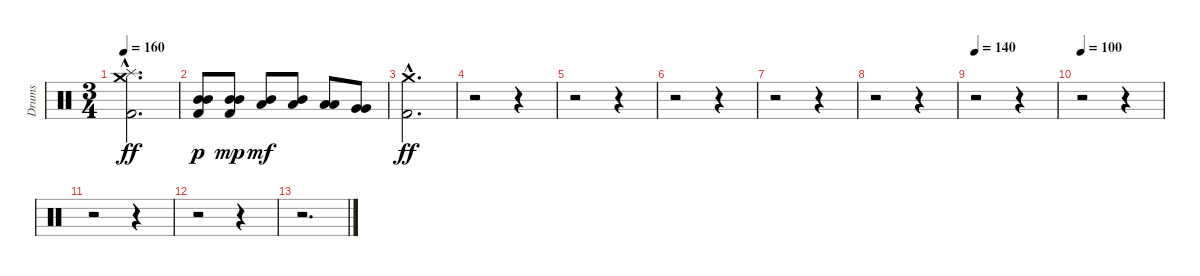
\track ("Drums" "Drums") {instrument percussion}
\staff {score}
\articulation defaults
\ts (3 4)
\tempo 160
\clef neutral
\ks c
("Crash medium (hit)"{hac} "Splash (hit)"{hac} "Kick (hit) 2"{hac}).2{d dy ff} |
("Mid Tom (hit)" "Mid Tom (hit)" "Kick (hit) 2").8{dy p} ("Mid Tom (hit)" "Mid Tom (hit)" "Kick (hit) 2").8{dy mp} ("Mid Tom (hit)" "Low Tom (hit)").8{dy mf} ("Mid Tom (hit)" "Low Tom (hit)").8 ("Low Tom (hit)" "Low Tom (hit)").8 ("Very Low Tom (hit)" "Very Low Tom (hit)").8 |
("Crash medium (hit)"{hac} "Kick (hit) 2"{hac}).2{d dy ff} |
r.2 r.4 |
r.2 r.4 |
r.2 r.4 |
r.2 r.4 |
r.2 r.4 |
\tempo 140
r.2 r.4 |
\tempo 100
r.2 r.4 |
r.2 r.4 |
r.2 r.4 |
r.2{d}
